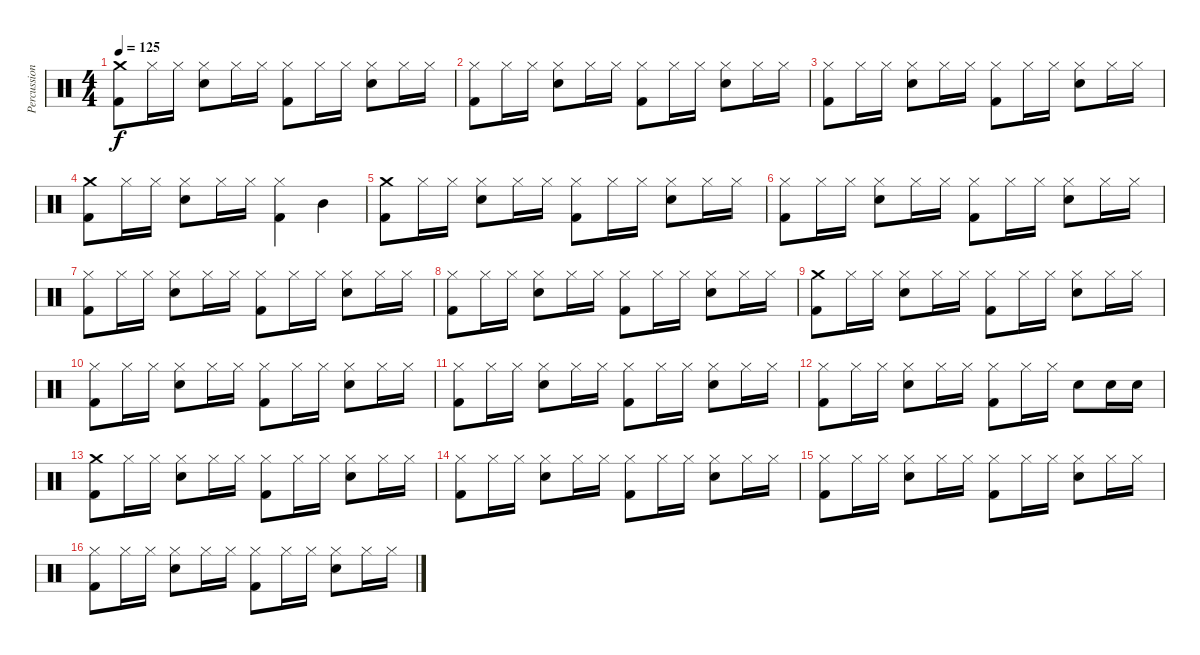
\track ("Percussion" "Percussion") {instrument percussion}
\staff {score}
\articulation defaults
\ts (4 4)
\tempo 125
\clef neutral
\ks c
("Crash medium (hit)" "Kick (hit) 2").8{dy f} "Hi-Hat (closed)".16 "Hi-Hat (closed)".16 ("Hi-Hat (closed)" "Snare (hit) 2").8 "Hi-Hat (closed)".16 "Hi-Hat (closed)".16 ("Hi-Hat (closed)" "Kick (hit) 2").8 "Hi-Hat (closed)".16 "Hi-Hat (closed)".16 ("Hi-Hat (closed)" "Snare (hit) 2").8 "Hi-Hat (closed)".16 "Hi-Hat (closed)".16 |
("Hi-Hat (closed)" "Kick (hit) 2").8 "Hi-Hat (closed)".16 "Hi-Hat (closed)".16 ("Hi-Hat (closed)" "Snare (hit) 2").8 "Hi-Hat (closed)".16 "Hi-Hat (closed)".16 ("Hi-Hat (closed)" "Kick (hit) 2").8 "Hi-Hat (closed)".16 "Hi-Hat (closed)".16 ("Hi-Hat (closed)" "Snare (hit) 2").8 "Hi-Hat (closed)".16 "Hi-Hat (closed)".16 |
("Hi-Hat (closed)" "Kick (hit) 2").8 "Hi-Hat (closed)".16 "Hi-Hat (closed)".16 ("Hi-Hat (closed)" "Snare (hit) 2").8 "Hi-Hat (closed)".16 "Hi-Hat (closed)".16 ("Hi-Hat (closed)" "Kick (hit) 2").8 "Hi-Hat (closed)".16 "Hi-Hat (closed)".16 ("Hi-Hat (closed)" "Snare (hit) 2").8 "Hi-Hat (closed)".16 "Hi-Hat (closed)".16 |
("Crash medium (hit)" "Kick (hit) 2").8 "Hi-Hat (closed)".16 "Hi-Hat (closed)".16 ("Hi-Hat (closed)" "Snare (hit) 2").8 "Hi-Hat (closed)".16 "Hi-Hat (closed)".16 ("Hi-Hat (closed)" "Kick (hit) 2").4 "Mid Tom (hit)".4 |
("Crash medium (hit)" "Kick (hit) 2").8 "Hi-Hat (closed)".16 "Hi-Hat (closed)".16 ("Hi-Hat (closed)" "Snare (hit) 2").8 "Hi-Hat (closed)".16 "Hi-Hat (closed)".16 ("Hi-Hat (closed)" "Kick (hit) 2").8 "Hi-Hat (closed)".16 "Hi-Hat (closed)".16 ("Hi-Hat (closed)" "Snare (hit) 2").8 "Hi-Hat (closed)".16 "Hi-Hat (closed)".16 |
("Hi-Hat (closed)" "Kick (hit) 2").8 "Hi-Hat (closed)".16 "Hi-Hat (closed)".16 ("Hi-Hat (closed)" "Snare (hit) 2").8 "Hi-Hat (closed)".16 "Hi-Hat (closed)".16 ("Hi-Hat (closed)" "Kick (hit) 2").8 "Hi-Hat (closed)".16 "Hi-Hat (closed)".16 ("Hi-Hat (closed)" "Snare (hit) 2").8 "Hi-Hat (closed)".16 "Hi-Hat (closed)".16 |
("Hi-Hat (closed)" "Kick (hit) 2").8 "Hi-Hat (closed)".16 "Hi-Hat (closed)".16 ("Hi-Hat (closed)" "Snare (hit) 2").8 "Hi-Hat (closed)".16 "Hi-Hat (closed)".16 ("Hi-Hat (closed)" "Kick (hit) 2").8 "Hi-Hat (closed)".16 "Hi-Hat (closed)".16 ("Hi-Hat (closed)" "Snare (hit) 2").8 "Hi-Hat (closed)".16 "Hi-Hat (closed)".16 |
("Hi-Hat (closed)" "Kick (hit) 2").8 "Hi-Hat (closed)".16 "Hi-Hat (closed)".16 ("Hi-Hat (closed)" "Snare (hit) 2").8 "Hi-Hat (closed)".16 "Hi-Hat (closed)".16 ("Hi-Hat (closed)" "Kick (hit) 2").8 "Hi-Hat (closed)".16 "Hi-Hat (closed)".16 ("Hi-Hat (closed)" "Snare (hit) 2").8 "Hi-Hat (closed)".16 "Hi-Hat (closed)".16 |
("Crash medium (hit)" "Kick (hit) 2").8 "Hi-Hat (closed)".16 "Hi-Hat (closed)".16 ("Hi-Hat (closed)" "Snare (hit) 2").8 "Hi-Hat (closed)".16 "Hi-Hat (closed)".16 ("Hi-Hat (closed)" "Kick (hit) 2").8 "Hi-Hat (closed)".16 "Hi-Hat (closed)".16 ("Hi-Hat (closed)" "Snare (hit) 2").8 "Hi-Hat (closed)".16 "Hi-Hat (closed)".16 |
("Hi-Hat (closed)" "Kick (hit) 2").8 "Hi-Hat (closed)".16 "Hi-Hat (closed)".16 ("Hi-Hat (closed)" "Snare (hit) 2").8 "Hi-Hat (closed)".16 "Hi-Hat (closed)".16 ("Hi-Hat (closed)" "Kick (hit) 2").8 "Hi-Hat (closed)".16 "Hi-Hat (closed)".16 ("Hi-Hat (closed)" "Snare (hit) 2").8 "Hi-Hat (closed)".16 "Hi-Hat (closed)".16 |
("Hi-Hat (closed)" "Kick (hit) 2").8 "Hi-Hat (closed)".16 "Hi-Hat (closed)".16 ("Hi-Hat (closed)" "Snare (hit) 2").8 "Hi-Hat (closed)".16 "Hi-Hat (closed)".16 ("Hi-Hat (closed)" "Kick (hit) 2").8 "Hi-Hat (closed)".16 "Hi-Hat (closed)".16 ("Hi-Hat (closed)" "Snare (hit) 2").8 "Hi-Hat (closed)".16 "Hi-Hat (closed)".16 |
("Hi-Hat (closed)" "Kick (hit) 2").8 "Hi-Hat (closed)".16 "Hi-Hat (closed)".16 ("Hi-Hat (closed)" "Snare (hit) 2").8 "Hi-Hat (closed)".16 "Hi-Hat (closed)".16 ("Hi-Hat (closed)" "Kick (hit) 2").8 "Hi-Hat (closed)".16 "Hi-Hat (closed)".16 "Snare (hit) 2".8 "Snare (hit) 2".16 "Snare (hit) 2".16 |
("Crash medium (hit)" "Kick (hit) 2").8 "Hi-Hat (closed)".16 "Hi-Hat (closed)".16 ("Hi-Hat (closed)" "Snare (hit) 2").8 "Hi-Hat (closed)".16 "Hi-Hat (closed)".16 ("Hi-Hat (closed)" "Kick (hit) 2").8 "Hi-Hat (closed)".16 "Hi-Hat (closed)".16 ("Hi-Hat (closed)" "Snare (hit) 2").8 "Hi-Hat (closed)".16 "Hi-Hat (closed)".16 |
("Hi-Hat (closed)" "Kick (hit) 2").8 "Hi-Hat (closed)".16 "Hi-Hat (closed)".16 ("Hi-Hat (closed)" "Snare (hit) 2").8 "Hi-Hat (closed)".16 "Hi-Hat (closed)".16 ("Hi-Hat (closed)" "Kick (hit) 2").8 "Hi-Hat (closed)".16 "Hi-Hat (closed)".16 ("Hi-Hat (closed)" "Snare (hit) 2").8 "Hi-Hat (closed)".16 "Hi-Hat (closed)".16 |
("Hi-Hat (closed)" "Kick (hit) 2").8 "Hi-Hat (closed)".16 "Hi-Hat (closed)".16 ("Hi-Hat (closed)" "Snare (hit) 2").8 "Hi-Hat (closed)".16 "Hi-Hat (closed)".16 ("Hi-Hat (closed)" "Kick (hit) 2").8 "Hi-Hat (closed)".16 "Hi-Hat (closed)".16 ("Hi-Hat (closed)" "Snare (hit) 2").8 "Hi-Hat (closed)".16 "Hi-Hat (closed)".16 |
("Hi-Hat (closed)" "Kick (hit) 2").8 "Hi-Hat (closed)".16 "Hi-Hat (closed)".16 ("Hi-Hat (closed)" "Snare (hit) 2").8 "Hi-Hat (closed)".16 "Hi-Hat (closed)".16 ("Hi-Hat (closed)" "Kick (hit) 2").8 "Hi-Hat (closed)".16 "Hi-Hat (closed)".16 ("Hi-Hat (closed)" "Snare (hit) 2").8 "Hi-Hat (closed)".16 "Hi-Hat (closed)".16
